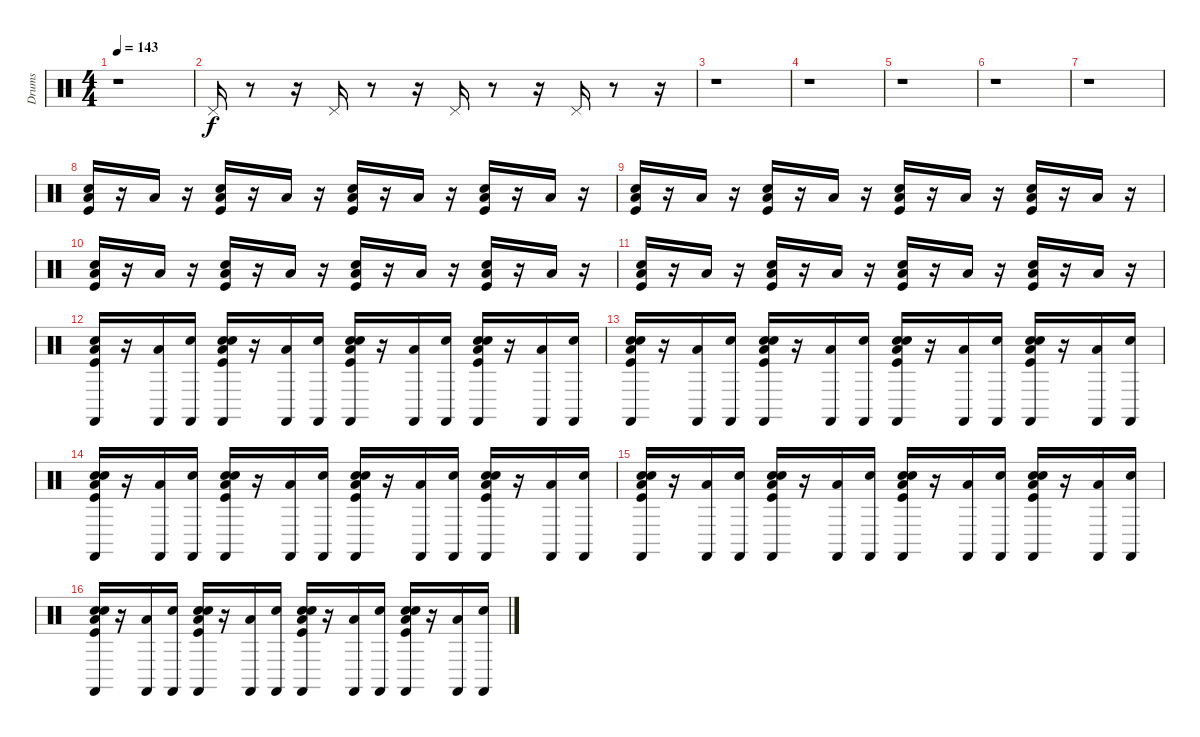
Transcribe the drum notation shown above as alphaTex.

\track ("Drums" "Drums") {instrument percussion}
\staff {score}
\articulation defaults
\ts (4 4)
\tempo 143
\clef neutral
\ks c
r.1{dy f} |
"Pedal Hi-Hat (hit)".16 r.8 r.16 "Pedal Hi-Hat (hit)".16 r.8 r.16 "Pedal Hi-Hat (hit)".16 r.8 r.16 "Pedal Hi-Hat (hit)".16 r.8 r.16 |
r.1 |
r.1 |
r.1 |
r.1 |
r.1 |
("Low Tom (hit)" "Electric Snare (hit)" "Kick (hit)").16 r.16 "Low Tom (hit)".16 r.16 ("Low Tom (hit)" "Electric Snare (hit)" "Kick (hit)").16 r.16 "Low Tom (hit)".16 r.16 ("Low Tom (hit)" "Electric Snare (hit)" "Kick (hit)").16 r.16 "Low Tom (hit)".16 r.16 ("Low Tom (hit)" "Electric Snare (hit)" "Kick (hit)").16 r.16 "Low Tom (hit)".16 r.16 |
("Low Tom (hit)" "Electric Snare (hit)" "Kick (hit)").16 r.16 "Low Tom (hit)".16 r.16 ("Low Tom (hit)" "Electric Snare (hit)" "Kick (hit)").16 r.16 "Low Tom (hit)".16 r.16 ("Low Tom (hit)" "Electric Snare (hit)" "Kick (hit)").16 r.16 "Low Tom (hit)".16 r.16 ("Low Tom (hit)" "Electric Snare (hit)" "Kick (hit)").16 r.16 "Low Tom (hit)".16 r.16 |
("Low Tom (hit)" "Electric Snare (hit)" "Kick (hit)").16 r.16 "Low Tom (hit)".16 r.16 ("Low Tom (hit)" "Electric Snare (hit)" "Kick (hit)").16 r.16 "Low Tom (hit)".16 r.16 ("Low Tom (hit)" "Electric Snare (hit)" "Kick (hit)").16 r.16 "Low Tom (hit)".16 r.16 ("Low Tom (hit)" "Electric Snare (hit)" "Kick (hit)").16 r.16 "Low Tom (hit)".16 r.16 |
("Low Tom (hit)" "Electric Snare (hit)" "Kick (hit)").16 r.16 "Low Tom (hit)".16 r.16 ("Low Tom (hit)" "Electric Snare (hit)" "Kick (hit)").16 r.16 "Low Tom (hit)".16 r.16 ("Low Tom (hit)" "Electric Snare (hit)" "Kick (hit)").16 r.16 "Low Tom (hit)".16 r.16 ("Low Tom (hit)" "Electric Snare (hit)" "Kick (hit)").16 r.16 "Low Tom (hit)".16 r.16 |
("Low Tom (hit)" "Electric Snare (hit)" "Kick (hit)" "Castanets (hit)").16 r.16 ("Low Tom (hit)" "Castanets (hit)").16 ("Snare (hit)" "Castanets (hit)").16 ("Snare (hit)" "Low Tom (hit)" "Electric Snare (hit)" "Kick (hit)" "Castanets (hit)").16 r.16 ("Low Tom (hit)" "Castanets (hit)").16 ("Snare (hit)" "Castanets (hit)").16 ("Snare (hit)" "Low Tom (hit)" "Electric Snare (hit)" "Kick (hit)" "Castanets (hit)").16 r.16 ("Low Tom (hit)" "Castanets (hit)").16 ("Snare (hit)" "Castanets (hit)").16 ("Snare (hit)" "Low Tom (hit)" "Electric Snare (hit)" "Kick (hit)" "Castanets (hit)").16 r.16 ("Low Tom (hit)" "Castanets (hit)").16 ("Snare (hit)" "Castanets (hit)").16 |
("Snare (hit)" "Low Tom (hit)" "Electric Snare (hit)" "Kick (hit)" "Castanets (hit)").16 r.16 ("Low Tom (hit)" "Castanets (hit)").16 ("Snare (hit)" "Castanets (hit)").16 ("Snare (hit)" "Low Tom (hit)" "Electric Snare (hit)" "Kick (hit)" "Castanets (hit)").16 r.16 ("Low Tom (hit)" "Castanets (hit)").16 ("Snare (hit)" "Castanets (hit)").16 ("Snare (hit)" "Low Tom (hit)" "Electric Snare (hit)" "Kick (hit)" "Castanets (hit)").16 r.16 ("Low Tom (hit)" "Castanets (hit)").16 ("Snare (hit)" "Castanets (hit)").16 ("Snare (hit)" "Low Tom (hit)" "Electric Snare (hit)" "Kick (hit)" "Castanets (hit)").16 r.16 ("Low Tom (hit)" "Castanets (hit)").16 ("Snare (hit)" "Castanets (hit)").16 |
("Snare (hit)" "Low Tom (hit)" "Electric Snare (hit)" "Kick (hit)" "Castanets (hit)").16 r.16 ("Low Tom (hit)" "Castanets (hit)").16 ("Snare (hit)" "Castanets (hit)").16 ("Snare (hit)" "Low Tom (hit)" "Electric Snare (hit)" "Kick (hit)" "Castanets (hit)").16 r.16 ("Low Tom (hit)" "Castanets (hit)").16 ("Snare (hit)" "Castanets (hit)").16 ("Snare (hit)" "Low Tom (hit)" "Electric Snare (hit)" "Kick (hit)" "Castanets (hit)").16 r.16 ("Low Tom (hit)" "Castanets (hit)").16 ("Snare (hit)" "Castanets (hit)").16 ("Snare (hit)" "Low Tom (hit)" "Electric Snare (hit)" "Kick (hit)" "Castanets (hit)").16 r.16 ("Low Tom (hit)" "Castanets (hit)").16 ("Snare (hit)" "Castanets (hit)").16 |
("Snare (hit)" "Low Tom (hit)" "Electric Snare (hit)" "Kick (hit)" "Castanets (hit)").16 r.16 ("Low Tom (hit)" "Castanets (hit)").16 ("Snare (hit)" "Castanets (hit)").16 ("Snare (hit)" "Low Tom (hit)" "Electric Snare (hit)" "Kick (hit)" "Castanets (hit)").16 r.16 ("Low Tom (hit)" "Castanets (hit)").16 ("Snare (hit)" "Castanets (hit)").16 ("Snare (hit)" "Low Tom (hit)" "Electric Snare (hit)" "Kick (hit)" "Castanets (hit)").16 r.16 ("Low Tom (hit)" "Castanets (hit)").16 ("Snare (hit)" "Castanets (hit)").16 ("Snare (hit)" "Low Tom (hit)" "Electric Snare (hit)" "Kick (hit)" "Castanets (hit)").16 r.16 ("Low Tom (hit)" "Castanets (hit)").16 ("Snare (hit)" "Castanets (hit)").16 |
("Snare (hit)" "Low Tom (hit)" "Electric Snare (hit)" "Kick (hit)" "Castanets (hit)").16 r.16 ("Low Tom (hit)" "Castanets (hit)").16 ("Snare (hit)" "Castanets (hit)").16 ("Snare (hit)" "Low Tom (hit)" "Electric Snare (hit)" "Kick (hit)" "Castanets (hit)").16 r.16 ("Low Tom (hit)" "Castanets (hit)").16 ("Snare (hit)" "Castanets (hit)").16 ("Snare (hit)" "Low Tom (hit)" "Electric Snare (hit)" "Kick (hit)" "Castanets (hit)").16 r.16 ("Low Tom (hit)" "Castanets (hit)").16 ("Snare (hit)" "Castanets (hit)").16 ("Snare (hit)" "Low Tom (hit)" "Electric Snare (hit)" "Kick (hit)" "Castanets (hit)").16 r.16 ("Low Tom (hit)" "Castanets (hit)").16 ("Snare (hit)" "Castanets (hit)").16
